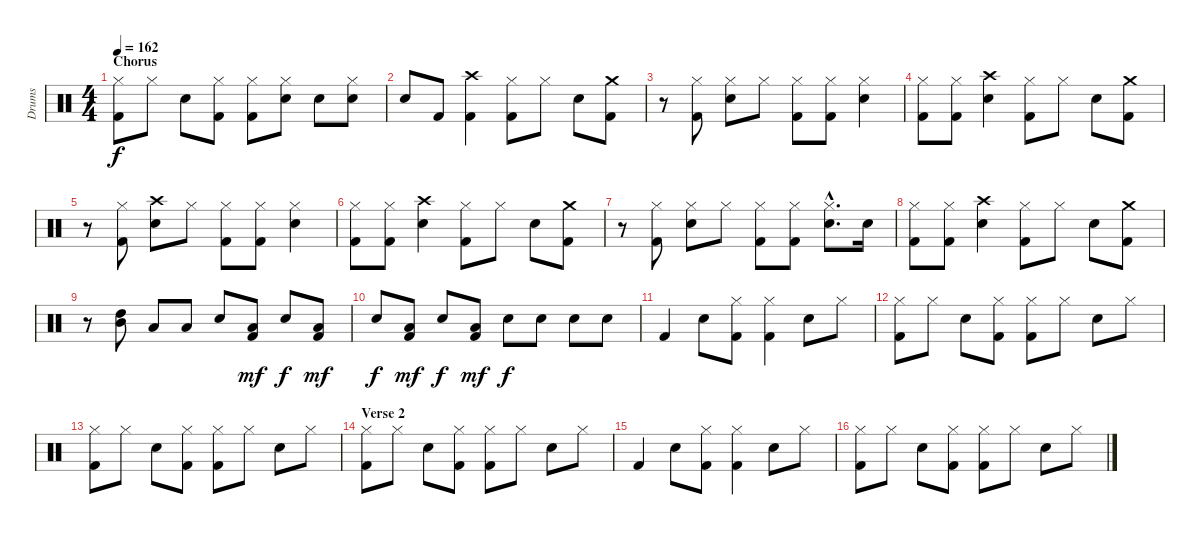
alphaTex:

\track ("Drums" "Drums") {instrument percussion}
\staff {score}
\articulation defaults
\ts (4 4)
\section ("" "Chorus")
\tempo 162
\clef neutral
\ks c
("Hi-Hat (closed)" "Kick (hit) 2").8{dy f} "Hi-Hat (closed)".8 "Snare (hit) 2".8 ("Hi-Hat (closed)" "Kick (hit) 2").8 ("Hi-Hat (closed)" "Kick (hit) 2").8 ("Hi-Hat (closed)" "Snare (hit) 2").8 "Snare (hit) 2".8 ("Hi-Hat (closed)" "Snare (hit) 2").8 |
"Snare (hit) 2".8 "Kick (hit) 2".8 ("Crash high (hit)" "Kick (hit) 2").4 ("Hi-Hat (closed)" "Kick (hit) 2").8 "Hi-Hat (closed)".8 "Snare (hit) 2".8 ("Crash medium (hit)" "Kick (hit) 2").8 |
r.8 ("Hi-Hat (closed)" "Kick (hit) 2").8 ("Hi-Hat (closed)" "Snare (hit) 2").8 "Hi-Hat (closed)".8 ("Hi-Hat (closed)" "Kick (hit) 2").8 ("Hi-Hat (closed)" "Kick (hit) 2").8 ("Hi-Hat (closed)" "Snare (hit) 2").4 |
("Hi-Hat (closed)" "Kick (hit) 2").8 ("Hi-Hat (closed)" "Kick (hit) 2").8 ("Crash high (hit)" "Snare (hit) 2").4 ("Hi-Hat (closed)" "Kick (hit) 2").8 "Hi-Hat (closed)".8 "Snare (hit) 2".8 ("Crash medium (hit)" "Kick (hit) 2").8 |
r.8 ("Hi-Hat (closed)" "Kick (hit) 2").8 ("Crash high (hit)" "Snare (hit) 2").8 "Hi-Hat (closed)".8 ("Hi-Hat (closed)" "Kick (hit) 2").8 ("Hi-Hat (closed)" "Kick (hit) 2").8 ("Hi-Hat (closed)" "Snare (hit) 2").4 |
("Hi-Hat (closed)" "Kick (hit) 2").8 ("Hi-Hat (closed)" "Kick (hit) 2").8 ("Crash high (hit)" "Snare (hit) 2").4 ("Hi-Hat (closed)" "Kick (hit) 2").8 "Hi-Hat (closed)".8 "Snare (hit) 2".8 ("Crash medium (hit)" "Kick (hit) 2").8 |
r.8 ("Hi-Hat (closed)" "Kick (hit) 2").8 ("Hi-Hat (closed)" "Snare (hit) 2").8 "Hi-Hat (closed)".8 ("Hi-Hat (closed)" "Kick (hit) 2").8 ("Hi-Hat (closed)" "Kick (hit) 2").8 ("Hi-Hat (closed)"{hac} "Snare (hit) 2"{hac}).8{d} "Snare (hit) 2".16 |
("Hi-Hat (closed)" "Kick (hit) 2").8 ("Hi-Hat (closed)" "Kick (hit) 2").8 ("Crash high (hit)" "Snare (hit) 2").4 ("Hi-Hat (closed)" "Kick (hit) 2").8 "Hi-Hat (closed)".8 "Snare (hit) 2".8 ("Crash medium (hit)" "Kick (hit) 2").8 |
r.8 ("Mid Tom (hit)" "High Tom (hit)").8 "Low Tom (hit)".8 "Low Tom (hit)".8 "Snare (hit) 2".8 ("Low Tom (hit)" "Kick (hit) 2").8{dy mf} "Snare (hit) 2".8{dy f} ("Low Tom (hit)" "Kick (hit) 2").8{dy mf} |
"Snare (hit) 2".8{dy f} ("Low Tom (hit)" "Kick (hit) 2").8{dy mf} "Snare (hit) 2".8{dy f} ("Low Tom (hit)" "Kick (hit) 2").8{dy mf} "Snare (hit) 2".8{dy f} "Snare (hit) 2".8 "Snare (hit) 2".8 "Snare (hit) 2".8 |
"Kick (hit) 2".4 "Snare (hit) 2".8 ("Hi-Hat (closed)" "Kick (hit) 2").8 ("Hi-Hat (closed)" "Kick (hit) 2").4 "Snare (hit) 2".8 "Hi-Hat (closed)".8 |
("Hi-Hat (closed)" "Kick (hit) 2").8 "Hi-Hat (closed)".8 "Snare (hit) 2".8 ("Hi-Hat (closed)" "Kick (hit) 2").8 ("Hi-Hat (closed)" "Kick (hit) 2").8 "Hi-Hat (closed)".8 "Snare (hit) 2".8 "Hi-Hat (closed)".8 |
("Hi-Hat (closed)" "Kick (hit) 2").8 "Hi-Hat (closed)".8 "Snare (hit) 2".8 ("Hi-Hat (closed)" "Kick (hit) 2").8 ("Hi-Hat (closed)" "Kick (hit) 2").8 "Hi-Hat (closed)".8 "Snare (hit) 2".8 "Hi-Hat (closed)".8 |
\section ("" "Verse 2")
("Hi-Hat (closed)" "Kick (hit) 2").8 "Hi-Hat (closed)".8 "Snare (hit) 2".8 ("Hi-Hat (closed)" "Kick (hit) 2").8 ("Hi-Hat (closed)" "Kick (hit) 2").8 "Hi-Hat (closed)".8 "Snare (hit) 2".8 "Hi-Hat (closed)".8 |
"Kick (hit) 2".4 "Snare (hit) 2".8 ("Hi-Hat (closed)" "Kick (hit) 2").8 ("Hi-Hat (closed)" "Kick (hit) 2").4 "Snare (hit) 2".8 "Hi-Hat (closed)".8 |
("Hi-Hat (closed)" "Kick (hit) 2").8 "Hi-Hat (closed)".8 "Snare (hit) 2".8 ("Hi-Hat (closed)" "Kick (hit) 2").8 ("Hi-Hat (closed)" "Kick (hit) 2").8 "Hi-Hat (closed)".8 "Snare (hit) 2".8 "Hi-Hat (closed)".8
